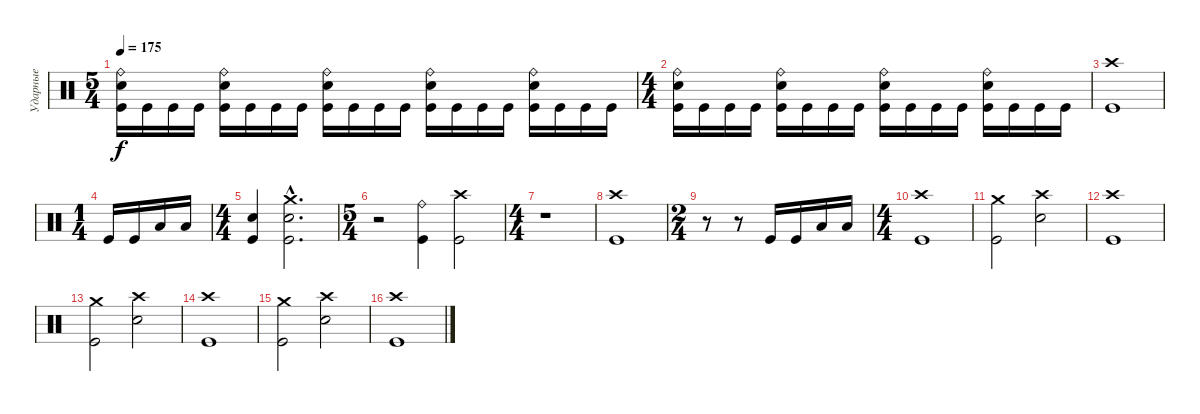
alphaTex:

\track ("Ударные" "Ударные") {instrument percussion}
\staff {score}
\articulation defaults
\ts (5 4)
\tempo 175
\clef neutral
\ks c
("Ride (bell)" "Electric Snare (hit)" "Kick (hit)").16{dy f} "Kick (hit)".16 "Kick (hit)".16 "Kick (hit)".16 ("Ride (bell)" "Electric Snare (hit)" "Kick (hit)").16 "Kick (hit)".16 "Kick (hit)".16 "Kick (hit)".16 ("Ride (bell)" "Electric Snare (hit)" "Kick (hit)").16 "Kick (hit)".16 "Kick (hit)".16 "Kick (hit)".16 ("Ride (bell)" "Electric Snare (hit)" "Kick (hit)").16 "Kick (hit)".16 "Kick (hit)".16 "Kick (hit)".16 ("Ride (bell)" "Electric Snare (hit)" "Kick (hit)").16 "Kick (hit)".16 "Kick (hit)".16 "Kick (hit)".16 |
\ts (4 4)
("Ride (bell)" "Electric Snare (hit)" "Kick (hit)").16 "Kick (hit)".16 "Kick (hit)".16 "Kick (hit)".16 ("Ride (bell)" "Electric Snare (hit)" "Kick (hit)").16 "Kick (hit)".16 "Kick (hit)".16 "Kick (hit)".16 ("Ride (bell)" "Electric Snare (hit)" "Kick (hit)").16 "Kick (hit)".16 "Kick (hit)".16 "Kick (hit)".16 ("Ride (bell)" "Electric Snare (hit)" "Kick (hit)").16 "Kick (hit)".16 "Kick (hit)".16 "Kick (hit)".16 |
("Crash high (hit)" "Kick (hit)").1 |
\ts (1 4)
"Kick (hit)".16 "Kick (hit)".16 "Low Tom (hit)".16 "Low Tom (hit)".16 |
\ts (4 4)
("Electric Snare (hit)" "Kick (hit)").4 ("Crash medium (hit)"{hac} "Electric Snare (hit)"{hac} "Kick (hit)"{hac}).2{d} |
\ts (5 4)
r.2 ("Ride (bell)" "Kick (hit)").4 ("Crash high (hit)" "Kick (hit)").2 |
\ts (4 4)
r.1 |
("Crash high (hit)" "Kick (hit)").1 |
\ts (2 4)
r.8 r.8 "Kick (hit)".16 "Kick (hit)".16 "Low Tom (hit)".16 "Low Tom (hit)".16 |
\ts (4 4)
("Crash high (hit)" "Kick (hit)").1 |
("Crash medium (hit)" "Kick (hit)").2 ("Crash high (hit)" "Electric Snare (hit)").2 |
("Crash high (hit)" "Kick (hit)").1 |
("Crash medium (hit)" "Kick (hit)").2 ("Crash high (hit)" "Electric Snare (hit)").2 |
("Crash high (hit)" "Kick (hit)").1 |
("Crash medium (hit)" "Kick (hit)").2 ("Crash high (hit)" "Electric Snare (hit)").2 |
("Crash high (hit)" "Kick (hit)").1
